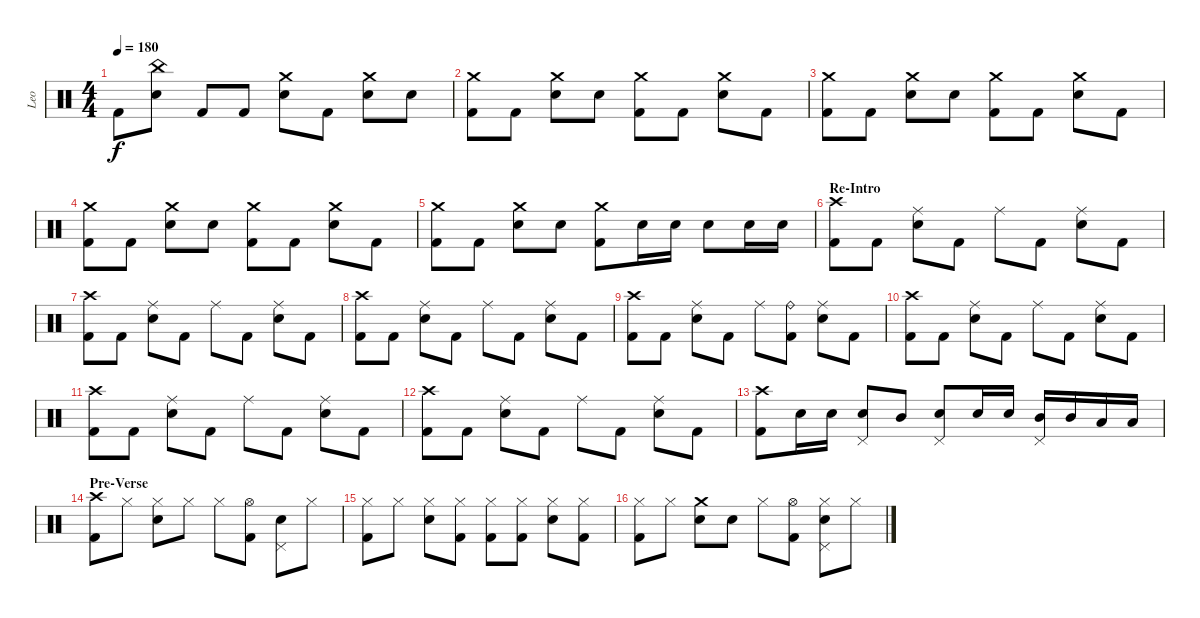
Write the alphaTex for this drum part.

\track ("Leo" "Leo") {instrument percussion}
\staff {score}
\articulation defaults
\ts (4 4)
\tempo 180
\clef neutral
\ks c "Kick (hit) 2".8{dy f}
("China (hit)" "Electric Snare (hit)").8 "Kick (hit) 2".8 "Kick (hit) 2".8 ("Crash medium (hit)" "Electric Snare (hit)").8 "Kick (hit) 2".8 ("Crash medium (hit)" "Electric Snare (hit)").8 "Electric Snare (hit)".8 |
("Crash medium (hit)" "Kick (hit) 2").8 "Kick (hit) 2".8 ("Crash medium (hit)" "Electric Snare (hit)").8 "Electric Snare (hit)".8 ("Crash medium (hit)" "Kick (hit) 2").8 "Kick (hit) 2".8 ("Crash medium (hit)" "Electric Snare (hit)").8 "Kick (hit) 2".8 |
("Crash medium (hit)" "Kick (hit) 2").8 "Kick (hit) 2".8 ("Crash medium (hit)" "Electric Snare (hit)").8 "Electric Snare (hit)".8 ("Crash medium (hit)" "Kick (hit) 2").8 "Kick (hit) 2".8 ("Crash medium (hit)" "Electric Snare (hit)").8 "Kick (hit) 2".8 |
("Crash medium (hit)" "Kick (hit) 2").8 "Kick (hit) 2".8 ("Crash medium (hit)" "Electric Snare (hit)").8 "Electric Snare (hit)".8 ("Crash medium (hit)" "Kick (hit) 2").8 "Kick (hit) 2".8 ("Crash medium (hit)" "Electric Snare (hit)").8 "Kick (hit) 2".8 |
("Crash medium (hit)" "Kick (hit) 2").8 "Kick (hit) 2".8 ("Crash medium (hit)" "Electric Snare (hit)").8 "Electric Snare (hit)".8 ("Crash medium (hit)" "Kick (hit) 2").8 "Electric Snare (hit)".16 "Electric Snare (hit)".16 "Electric Snare (hit)".8 "Electric Snare (hit)".16 "Electric Snare (hit)".16 |
\section ("" "Re-Intro")
("Crash high (hit)" "Kick (hit) 2").8 "Kick (hit) 2".8 ("Ride (middle)" "Electric Snare (hit)").8 "Kick (hit) 2".8 "Ride (middle)".8 "Kick (hit) 2".8 ("Ride (middle)" "Electric Snare (hit)").8 "Kick (hit) 2".8 |
("Crash high (hit)" "Kick (hit) 2").8 "Kick (hit) 2".8 ("Ride (middle)" "Electric Snare (hit)").8 "Kick (hit) 2".8 "Ride (middle)".8 "Kick (hit) 2".8 ("Ride (middle)" "Electric Snare (hit)").8 "Kick (hit) 2".8 |
("Crash high (hit)" "Kick (hit) 2").8 "Kick (hit) 2".8 ("Ride (middle)" "Electric Snare (hit)").8 "Kick (hit) 2".8 "Ride (middle)".8 "Kick (hit) 2".8 ("Ride (middle)" "Electric Snare (hit)").8 "Kick (hit) 2".8 |
("Crash high (hit)" "Kick (hit) 2").8 "Kick (hit) 2".8 ("Ride (middle)" "Electric Snare (hit)").8 "Kick (hit) 2".8 "Ride (middle)".8 ("Ride (bell)" "Kick (hit) 2").8 ("Ride (middle)" "Electric Snare (hit)").8 "Kick (hit) 2".8 |
("Crash high (hit)" "Kick (hit) 2").8 "Kick (hit) 2".8 ("Ride (middle)" "Electric Snare (hit)").8 "Kick (hit) 2".8 "Ride (middle)".8 "Kick (hit) 2".8 ("Ride (middle)" "Electric Snare (hit)").8 "Kick (hit) 2".8 |
("Crash high (hit)" "Kick (hit) 2").8 "Kick (hit) 2".8 ("Ride (middle)" "Electric Snare (hit)").8 "Kick (hit) 2".8 "Ride (middle)".8 "Kick (hit) 2".8 ("Ride (middle)" "Electric Snare (hit)").8 "Kick (hit) 2".8 |
("Crash high (hit)" "Kick (hit) 2").8 "Kick (hit) 2".8 ("Ride (middle)" "Electric Snare (hit)").8 "Kick (hit) 2".8 "Ride (middle)".8 "Kick (hit) 2".8 ("Ride (middle)" "Electric Snare (hit)").8 "Kick (hit) 2".8 |
("Crash high (hit)" "Kick (hit) 2").8 "Electric Snare (hit)".16 "Electric Snare (hit)".16 ("Electric Snare (hit)" "Pedal Hi-Hat (hit)").8 "Mid Tom (hit)".8 ("Electric Snare (hit)" "Pedal Hi-Hat (hit)").8 "Electric Snare (hit)".16 "Electric Snare (hit)".16 ("Mid Tom (hit)" "Pedal Hi-Hat (hit)").16 "Mid Tom (hit)".16 "Low Tom (hit)".16 "Low Tom (hit)".16 |
\section ("" "Pre-Verse")
("Crash high (hit)" "Kick (hit) 2").8 "Hi-Hat (closed)".8 ("Hi-Hat (closed)" "Electric Snare (hit)").8 "Hi-Hat (closed)".8 "Hi-Hat (closed)".8 ("Hi-Hat (open)" "Kick (hit) 2").8 ("Pedal Hi-Hat (hit)" "Electric Snare (hit)").8 "Hi-Hat (closed)".8 |
("Hi-Hat (closed)" "Kick (hit) 2").8 "Hi-Hat (closed)".8 ("Hi-Hat (closed)" "Electric Snare (hit)").8 ("Hi-Hat (closed)" "Kick (hit) 2").8 ("Hi-Hat (closed)" "Kick (hit) 2").8 ("Hi-Hat (closed)" "Kick (hit) 2").8 ("Hi-Hat (closed)" "Electric Snare (hit)").8 ("Hi-Hat (closed)" "Kick (hit) 2").8 |
("Hi-Hat (closed)" "Kick (hit) 2").8 "Hi-Hat (closed)".8 ("Crash medium (hit)" "Electric Snare (hit)").8 "Electric Snare (hit)".8 "Hi-Hat (closed)".8 ("Hi-Hat (open)" "Kick (hit) 2").8 ("Hi-Hat (closed)" "Electric Snare (hit)" "Pedal Hi-Hat (hit)").8 "Hi-Hat (closed)".8
